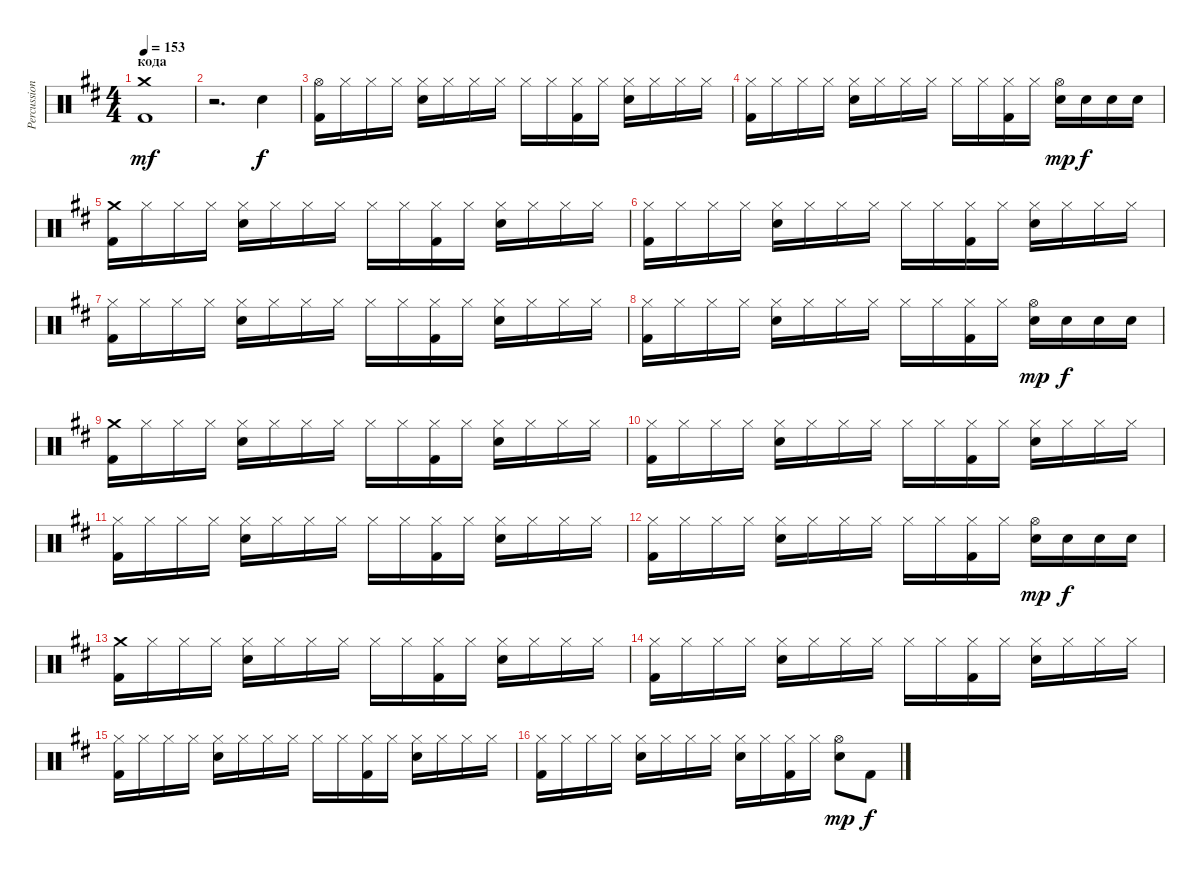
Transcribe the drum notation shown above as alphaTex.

\track ("Percussion" "Percussion") {instrument percussion}
\staff {score}
\articulation defaults
\ts (4 4)
\section ("" "кода ")
\tempo 153
\clef neutral
\ks bminor
("Kick (hit) 2" "Crash medium (hit)").1{dy mf} |
r.2{d} "Electric Snare (hit)".4{dy f} |
("Hi-Hat (open)" "Kick (hit) 2").16 "Hi-Hat (closed)".16 "Hi-Hat (closed)".16 "Hi-Hat (closed)".16 ("Hi-Hat (closed)" "Electric Snare (hit)").16 "Hi-Hat (closed)".16 "Hi-Hat (closed)".16 "Hi-Hat (closed)".16 "Hi-Hat (closed)".16 "Hi-Hat (closed)".16 ("Hi-Hat (closed)" "Kick (hit) 2").16 "Hi-Hat (closed)".16 ("Hi-Hat (closed)" "Electric Snare (hit)").16 "Hi-Hat (closed)".16 "Hi-Hat (closed)".16 "Hi-Hat (closed)".16 |
("Hi-Hat (closed)" "Kick (hit) 2").16 "Hi-Hat (closed)".16 "Hi-Hat (closed)".16 "Hi-Hat (closed)".16 ("Hi-Hat (closed)" "Electric Snare (hit)").16 "Hi-Hat (closed)".16 "Hi-Hat (closed)".16 "Hi-Hat (closed)".16 "Hi-Hat (closed)".16 "Hi-Hat (closed)".16 ("Hi-Hat (closed)" "Kick (hit) 2").16 "Hi-Hat (closed)".16 ("Electric Snare (hit)" "Hi-Hat (open)").16{dy mp} "Electric Snare (hit)".16{dy f} "Electric Snare (hit)".16 "Electric Snare (hit)".16 |
("Crash medium (hit)" "Kick (hit) 2").16 "Hi-Hat (closed)".16 "Hi-Hat (closed)".16 "Hi-Hat (closed)".16 ("Hi-Hat (closed)" "Electric Snare (hit)").16 "Hi-Hat (closed)".16 "Hi-Hat (closed)".16 "Hi-Hat (closed)".16 "Hi-Hat (closed)".16 "Hi-Hat (closed)".16 ("Hi-Hat (closed)" "Kick (hit) 2").16 "Hi-Hat (closed)".16 ("Hi-Hat (closed)" "Electric Snare (hit)").16 "Hi-Hat (closed)".16 "Hi-Hat (closed)".16 "Hi-Hat (closed)".16 |
("Hi-Hat (closed)" "Kick (hit) 2").16 "Hi-Hat (closed)".16 "Hi-Hat (closed)".16 "Hi-Hat (closed)".16 ("Hi-Hat (closed)" "Electric Snare (hit)").16 "Hi-Hat (closed)".16 "Hi-Hat (closed)".16 "Hi-Hat (closed)".16 "Hi-Hat (closed)".16 "Hi-Hat (closed)".16 ("Hi-Hat (closed)" "Kick (hit) 2").16 "Hi-Hat (closed)".16 ("Hi-Hat (closed)" "Electric Snare (hit)").16 "Hi-Hat (closed)".16 "Hi-Hat (closed)".16 "Hi-Hat (closed)".16 |
("Hi-Hat (closed)" "Kick (hit) 2").16 "Hi-Hat (closed)".16 "Hi-Hat (closed)".16 "Hi-Hat (closed)".16 ("Hi-Hat (closed)" "Electric Snare (hit)").16 "Hi-Hat (closed)".16 "Hi-Hat (closed)".16 "Hi-Hat (closed)".16 "Hi-Hat (closed)".16 "Hi-Hat (closed)".16 ("Hi-Hat (closed)" "Kick (hit) 2").16 "Hi-Hat (closed)".16 ("Hi-Hat (closed)" "Electric Snare (hit)").16 "Hi-Hat (closed)".16 "Hi-Hat (closed)".16 "Hi-Hat (closed)".16 |
("Hi-Hat (closed)" "Kick (hit) 2").16 "Hi-Hat (closed)".16 "Hi-Hat (closed)".16 "Hi-Hat (closed)".16 ("Hi-Hat (closed)" "Electric Snare (hit)").16 "Hi-Hat (closed)".16 "Hi-Hat (closed)".16 "Hi-Hat (closed)".16 "Hi-Hat (closed)".16 "Hi-Hat (closed)".16 ("Hi-Hat (closed)" "Kick (hit) 2").16 "Hi-Hat (closed)".16 ("Electric Snare (hit)" "Hi-Hat (open)").16{dy mp} "Electric Snare (hit)".16{dy f} "Electric Snare (hit)".16 "Electric Snare (hit)".16 |
("Crash medium (hit)" "Kick (hit) 2").16 "Hi-Hat (closed)".16 "Hi-Hat (closed)".16 "Hi-Hat (closed)".16 ("Hi-Hat (closed)" "Electric Snare (hit)").16 "Hi-Hat (closed)".16 "Hi-Hat (closed)".16 "Hi-Hat (closed)".16 "Hi-Hat (closed)".16 "Hi-Hat (closed)".16 ("Hi-Hat (closed)" "Kick (hit) 2").16 "Hi-Hat (closed)".16 ("Hi-Hat (closed)" "Electric Snare (hit)").16 "Hi-Hat (closed)".16 "Hi-Hat (closed)".16 "Hi-Hat (closed)".16 |
("Hi-Hat (closed)" "Kick (hit) 2").16 "Hi-Hat (closed)".16 "Hi-Hat (closed)".16 "Hi-Hat (closed)".16 ("Hi-Hat (closed)" "Electric Snare (hit)").16 "Hi-Hat (closed)".16 "Hi-Hat (closed)".16 "Hi-Hat (closed)".16 "Hi-Hat (closed)".16 "Hi-Hat (closed)".16 ("Hi-Hat (closed)" "Kick (hit) 2").16 "Hi-Hat (closed)".16 ("Hi-Hat (closed)" "Electric Snare (hit)").16 "Hi-Hat (closed)".16 "Hi-Hat (closed)".16 "Hi-Hat (closed)".16 |
("Hi-Hat (closed)" "Kick (hit) 2").16 "Hi-Hat (closed)".16 "Hi-Hat (closed)".16 "Hi-Hat (closed)".16 ("Hi-Hat (closed)" "Electric Snare (hit)").16 "Hi-Hat (closed)".16 "Hi-Hat (closed)".16 "Hi-Hat (closed)".16 "Hi-Hat (closed)".16 "Hi-Hat (closed)".16 ("Hi-Hat (closed)" "Kick (hit) 2").16 "Hi-Hat (closed)".16 ("Hi-Hat (closed)" "Electric Snare (hit)").16 "Hi-Hat (closed)".16 "Hi-Hat (closed)".16 "Hi-Hat (closed)".16 |
("Hi-Hat (closed)" "Kick (hit) 2").16 "Hi-Hat (closed)".16 "Hi-Hat (closed)".16 "Hi-Hat (closed)".16 ("Hi-Hat (closed)" "Electric Snare (hit)").16 "Hi-Hat (closed)".16 "Hi-Hat (closed)".16 "Hi-Hat (closed)".16 "Hi-Hat (closed)".16 "Hi-Hat (closed)".16 ("Hi-Hat (closed)" "Kick (hit) 2").16 "Hi-Hat (closed)".16 ("Electric Snare (hit)" "Hi-Hat (open)").16{dy mp} "Electric Snare (hit)".16{dy f} "Electric Snare (hit)".16 "Electric Snare (hit)".16 |
("Crash medium (hit)" "Kick (hit) 2").16 "Hi-Hat (closed)".16 "Hi-Hat (closed)".16 "Hi-Hat (closed)".16 ("Hi-Hat (closed)" "Electric Snare (hit)").16 "Hi-Hat (closed)".16 "Hi-Hat (closed)".16 "Hi-Hat (closed)".16 "Hi-Hat (closed)".16 "Hi-Hat (closed)".16 ("Hi-Hat (closed)" "Kick (hit) 2").16 "Hi-Hat (closed)".16 ("Hi-Hat (closed)" "Electric Snare (hit)").16 "Hi-Hat (closed)".16 "Hi-Hat (closed)".16 "Hi-Hat (closed)".16 |
("Hi-Hat (closed)" "Kick (hit) 2").16 "Hi-Hat (closed)".16 "Hi-Hat (closed)".16 "Hi-Hat (closed)".16 ("Hi-Hat (closed)" "Electric Snare (hit)").16 "Hi-Hat (closed)".16 "Hi-Hat (closed)".16 "Hi-Hat (closed)".16 "Hi-Hat (closed)".16 "Hi-Hat (closed)".16 ("Hi-Hat (closed)" "Kick (hit) 2").16 "Hi-Hat (closed)".16 ("Hi-Hat (closed)" "Electric Snare (hit)").16 "Hi-Hat (closed)".16 "Hi-Hat (closed)".16 "Hi-Hat (closed)".16 |
("Hi-Hat (closed)" "Kick (hit) 2").16 "Hi-Hat (closed)".16 "Hi-Hat (closed)".16 "Hi-Hat (closed)".16 ("Hi-Hat (closed)" "Electric Snare (hit)").16 "Hi-Hat (closed)".16 "Hi-Hat (closed)".16 "Hi-Hat (closed)".16 "Hi-Hat (closed)".16 "Hi-Hat (closed)".16 ("Hi-Hat (closed)" "Kick (hit) 2").16 "Hi-Hat (closed)".16 ("Hi-Hat (closed)" "Electric Snare (hit)").16 "Hi-Hat (closed)".16 "Hi-Hat (closed)".16 "Hi-Hat (closed)".16 |
("Hi-Hat (closed)" "Kick (hit) 2").16 "Hi-Hat (closed)".16 "Hi-Hat (closed)".16 "Hi-Hat (closed)".16 ("Hi-Hat (closed)" "Electric Snare (hit)").16 "Hi-Hat (closed)".16 "Hi-Hat (closed)".16 "Hi-Hat (closed)".16 ("Hi-Hat (closed)" "Electric Snare (hit)").16 "Hi-Hat (closed)".16 ("Hi-Hat (closed)" "Kick (hit) 2").16 "Hi-Hat (closed)".16 ("Electric Snare (hit)" "Hi-Hat (open)").8{dy mp} "Kick (hit) 2".8{dy f}
